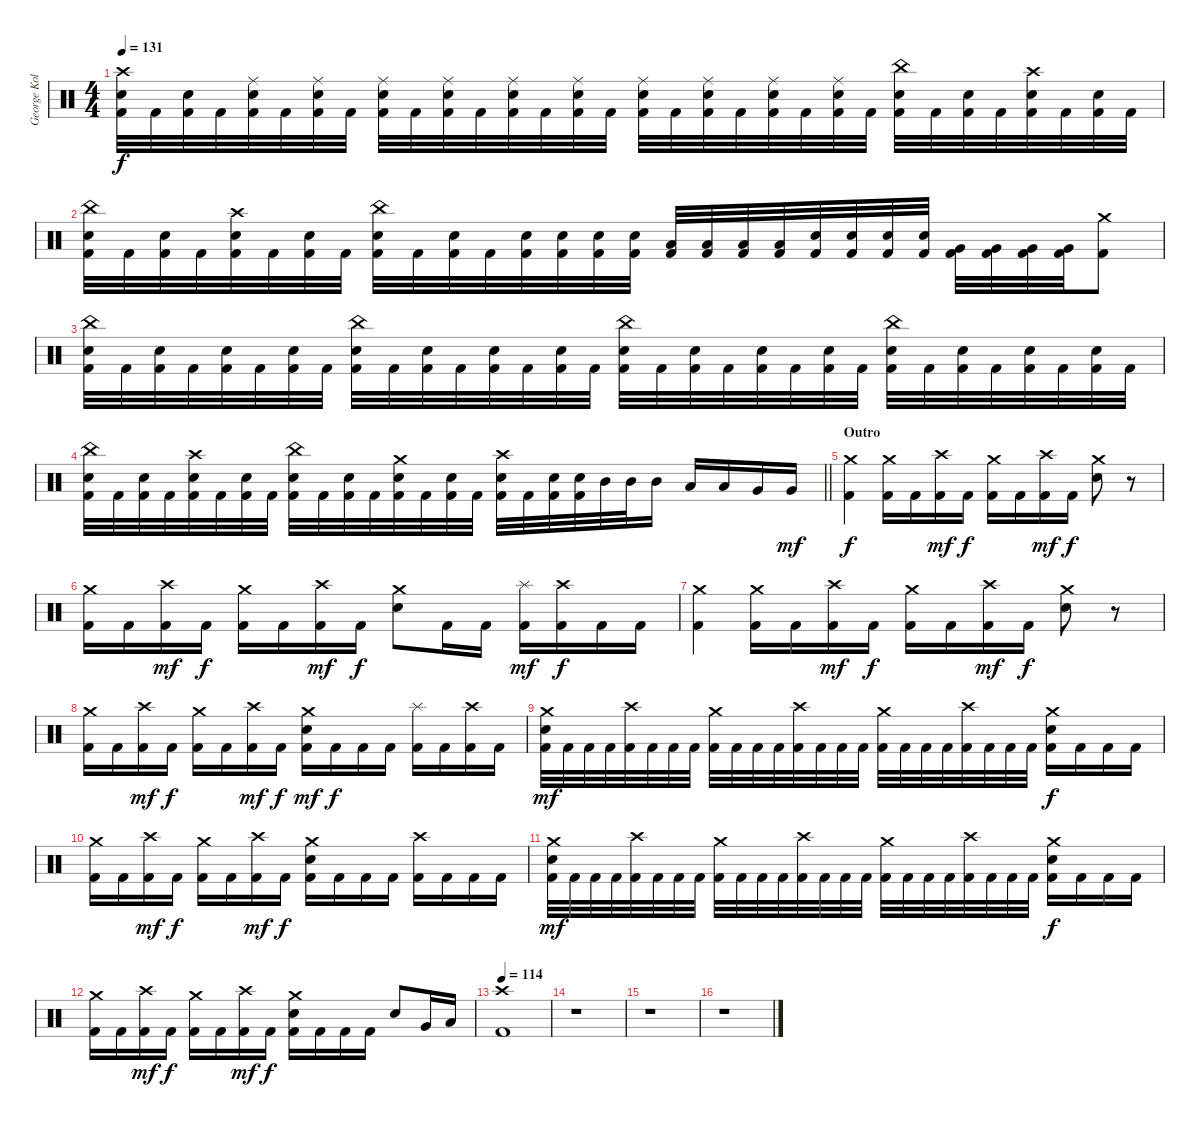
\track ("George Kollias" "George Kol") {instrument percussion}
\staff {score}
\articulation defaults
\ts (4 4)
\tempo 131
\clef neutral
\ks c
("Crash high (hit)" "Electric Snare (hit)" "Kick (hit) 2").32{dy f} "Kick (hit) 2".32 ("Electric Snare (hit)" "Kick (hit) 2").32 "Kick (hit) 2".32 ("Ride (middle)" "Electric Snare (hit)" "Kick (hit) 2").32 "Kick (hit) 2".32 ("Ride (middle)" "Electric Snare (hit)" "Kick (hit) 2").32 "Kick (hit) 2".32 ("Ride (middle)" "Electric Snare (hit)" "Kick (hit) 2").32 "Kick (hit) 2".32 ("Ride (middle)" "Electric Snare (hit)" "Kick (hit) 2").32 "Kick (hit) 2".32 ("Ride (middle)" "Electric Snare (hit)" "Kick (hit) 2").32 "Kick (hit) 2".32 ("Ride (middle)" "Electric Snare (hit)" "Kick (hit) 2").32 "Kick (hit) 2".32 ("Ride (middle)" "Electric Snare (hit)" "Kick (hit) 2").32 "Kick (hit) 2".32 ("Ride (middle)" "Electric Snare (hit)" "Kick (hit) 2").32 "Kick (hit) 2".32 ("Ride (middle)" "Electric Snare (hit)" "Kick (hit) 2").32 "Kick (hit) 2".32 ("Ride (middle)" "Electric Snare (hit)" "Kick (hit) 2").32 "Kick (hit) 2".32 ("China (hit)" "Electric Snare (hit)" "Kick (hit) 2").32 "Kick (hit) 2".32 ("Electric Snare (hit)" "Kick (hit) 2").32 "Kick (hit) 2".32 ("Crash high (hit)" "Electric Snare (hit)" "Kick (hit) 2").32 "Kick (hit) 2".32 ("Electric Snare (hit)" "Kick (hit) 2").32 "Kick (hit) 2".32 |
("China (hit)" "Electric Snare (hit)" "Kick (hit) 2").32 "Kick (hit) 2".32 ("Electric Snare (hit)" "Kick (hit) 2").32 "Kick (hit) 2".32 ("Crash high (hit)" "Electric Snare (hit)" "Kick (hit) 2").32 "Kick (hit) 2".32 ("Electric Snare (hit)" "Kick (hit) 2").32 "Kick (hit) 2".32 ("China (hit)" "Electric Snare (hit)" "Kick (hit) 2").32 "Kick (hit) 2".32 ("Electric Snare (hit)" "Kick (hit) 2").32 "Kick (hit) 2".32 ("Electric Snare (hit)" "Kick (hit) 2").32 ("Electric Snare (hit)" "Kick (hit) 2").32 ("Electric Snare (hit)" "Kick (hit) 2").32 ("Electric Snare (hit)" "Kick (hit) 2").32 ("Low Tom (hit)" "Kick (hit) 2").32 ("Low Tom (hit)" "Kick (hit) 2").32 ("Low Tom (hit)" "Kick (hit) 2").32 ("Low Tom (hit)" "Kick (hit) 2").32 ("Electric Snare (hit)" "Kick (hit) 2").32 ("Electric Snare (hit)" "Kick (hit) 2").32 ("Electric Snare (hit)" "Kick (hit) 2").32 ("Electric Snare (hit)" "Kick (hit) 2").32 ("Very Low Tom (hit)" "Kick (hit) 2").32 ("Very Low Tom (hit)" "Kick (hit) 2").32 ("Very Low Tom (hit)" "Kick (hit) 2").32 ("Very Low Tom (hit)" "Kick (hit) 2").32 ("Crash medium (hit)" "Kick (hit) 2").8 |
("China (hit)" "Electric Snare (hit)" "Kick (hit) 2").32 "Kick (hit) 2".32 ("Electric Snare (hit)" "Kick (hit) 2").32 "Kick (hit) 2".32 ("Electric Snare (hit)" "Kick (hit) 2").32 "Kick (hit) 2".32 ("Electric Snare (hit)" "Kick (hit) 2").32 "Kick (hit) 2".32 ("China (hit)" "Electric Snare (hit)" "Kick (hit) 2").32 "Kick (hit) 2".32 ("Electric Snare (hit)" "Kick (hit) 2").32 "Kick (hit) 2".32 ("Electric Snare (hit)" "Kick (hit) 2").32 "Kick (hit) 2".32 ("Electric Snare (hit)" "Kick (hit) 2").32 "Kick (hit) 2".32 ("China (hit)" "Electric Snare (hit)" "Kick (hit) 2").32 "Kick (hit) 2".32 ("Electric Snare (hit)" "Kick (hit) 2").32 "Kick (hit) 2".32 ("Electric Snare (hit)" "Kick (hit) 2").32 "Kick (hit) 2".32 ("Electric Snare (hit)" "Kick (hit) 2").32 "Kick (hit) 2".32 ("China (hit)" "Electric Snare (hit)" "Kick (hit) 2").32 "Kick (hit) 2".32 ("Electric Snare (hit)" "Kick (hit) 2").32 "Kick (hit) 2".32 ("Electric Snare (hit)" "Kick (hit) 2").32 "Kick (hit) 2".32 ("Electric Snare (hit)" "Kick (hit) 2").32 "Kick (hit) 2".32 |
\barLineRight lightlight
("China (hit)" "Electric Snare (hit)" "Kick (hit) 2").32 "Kick (hit) 2".32 ("Electric Snare (hit)" "Kick (hit) 2").32 "Kick (hit) 2".32 ("Crash high (hit)" "Electric Snare (hit)" "Kick (hit) 2").32 "Kick (hit) 2".32 ("Electric Snare (hit)" "Kick (hit) 2").32 "Kick (hit) 2".32 ("China (hit)" "Electric Snare (hit)" "Kick (hit) 2").32 "Kick (hit) 2".32 ("Electric Snare (hit)" "Kick (hit) 2").32 "Kick (hit) 2".32 ("Crash medium (hit)" "Electric Snare (hit)" "Kick (hit) 2").32 "Kick (hit) 2".32 ("Electric Snare (hit)" "Kick (hit) 2").32 "Kick (hit) 2".32 ("Crash high (hit)" "Electric Snare (hit)" "Kick (hit) 2").32 "Kick (hit) 2".32 ("Electric Snare (hit)" "Kick (hit) 2").32 ("Electric Snare (hit)" "Kick (hit) 2").32 "Mid Tom (hit)".32 "Mid Tom (hit)".32 "Mid Tom (hit)".16 "Low Tom (hit)".16 "Low Tom (hit)".16 "Very Low Tom (hit)".16 "Very Low Tom (hit)".16{dy mf} |
\section ("" "Outro ")
("Crash medium (hit)" "Kick (hit) 2").4{dy f} ("Crash medium (hit)" "Kick (hit) 2").16 "Kick (hit) 2".16 ("Crash high (hit)" "Kick (hit) 2").16{dy mf} "Kick (hit) 2".16{dy f} ("Crash medium (hit)" "Kick (hit) 2").16 "Kick (hit) 2".16 ("Crash high (hit)" "Kick (hit) 2").16{dy mf} "Kick (hit) 2".16{dy f} ("Crash medium (hit)" "Electric Snare (hit)").8 r.8 |
("Crash medium (hit)" "Kick (hit) 2").16 "Kick (hit) 2".16 ("Crash high (hit)" "Kick (hit) 2").16{dy mf} "Kick (hit) 2".16{dy f} ("Crash medium (hit)" "Kick (hit) 2").16 "Kick (hit) 2".16 ("Crash high (hit)" "Kick (hit) 2").16{dy mf} "Kick (hit) 2".16{dy f} ("Crash medium (hit)" "Electric Snare (hit)").8 "Kick (hit) 2".16 "Kick (hit) 2".16 ("Splash (hit)" "Kick (hit) 2").16{dy mf} ("Crash high (hit)" "Kick (hit) 2").16{dy f} "Kick (hit) 2".16 "Kick (hit) 2".16 |
("Crash medium (hit)" "Kick (hit) 2").4 ("Crash medium (hit)" "Kick (hit) 2").16 "Kick (hit) 2".16 ("Crash high (hit)" "Kick (hit) 2").16{dy mf} "Kick (hit) 2".16{dy f} ("Crash medium (hit)" "Kick (hit) 2").16 "Kick (hit) 2".16 ("Crash high (hit)" "Kick (hit) 2").16{dy mf} "Kick (hit) 2".16{dy f} ("Crash medium (hit)" "Electric Snare (hit)").8 r.8 |
("Crash medium (hit)" "Kick (hit) 2").16 "Kick (hit) 2".16 ("Crash high (hit)" "Kick (hit) 2").16{dy mf} "Kick (hit) 2".16{dy f} ("Crash medium (hit)" "Kick (hit) 2").16 "Kick (hit) 2".16 ("Crash high (hit)" "Kick (hit) 2").16{dy mf} "Kick (hit) 2".16{dy f} ("Crash medium (hit)" "Electric Snare (hit)" "Kick (hit) 2").16{dy mf} "Kick (hit) 2".16{dy f} "Kick (hit) 2".16 "Kick (hit) 2".16 ("Splash (hit)" "Kick (hit) 2").16 "Kick (hit) 2".16 ("Crash high (hit)" "Kick (hit) 2").16 "Kick (hit) 2".16 |
("Crash medium (hit)" "Electric Snare (hit)" "Kick (hit) 2").32{dy mf} "Kick (hit) 2".32 "Kick (hit) 2".32 "Kick (hit) 2".32 ("Crash high (hit)" "Kick (hit) 2").32 "Kick (hit) 2".32 "Kick (hit) 2".32 "Kick (hit) 2".32 ("Crash medium (hit)" "Kick (hit) 2").32 "Kick (hit) 2".32 "Kick (hit) 2".32 "Kick (hit) 2".32 ("Crash high (hit)" "Kick (hit) 2").32 "Kick (hit) 2".32 "Kick (hit) 2".32 "Kick (hit) 2".32 ("Crash medium (hit)" "Kick (hit) 2").32 "Kick (hit) 2".32 "Kick (hit) 2".32 "Kick (hit) 2".32 ("Crash high (hit)" "Kick (hit) 2").32 "Kick (hit) 2".32 "Kick (hit) 2".32 "Kick (hit) 2".32 ("Crash medium (hit)" "Electric Snare (hit)" "Kick (hit) 2").16{dy f} "Kick (hit) 2".16 "Kick (hit) 2".16 "Kick (hit) 2".16 |
("Crash medium (hit)" "Kick (hit) 2").16 "Kick (hit) 2".16 ("Crash high (hit)" "Kick (hit) 2").16{dy mf} "Kick (hit) 2".16{dy f} ("Crash medium (hit)" "Kick (hit) 2").16 "Kick (hit) 2".16 ("Crash high (hit)" "Kick (hit) 2").16{dy mf} "Kick (hit) 2".16{dy f} ("Crash medium (hit)" "Electric Snare (hit)" "Kick (hit) 2").16 "Kick (hit) 2".16 "Kick (hit) 2".16 "Kick (hit) 2".16 ("Crash high (hit)" "Kick (hit) 2").16 "Kick (hit) 2".16 "Kick (hit) 2".16 "Kick (hit) 2".16 |
("Crash medium (hit)" "Electric Snare (hit)" "Kick (hit) 2").32{dy mf} "Kick (hit) 2".32 "Kick (hit) 2".32 "Kick (hit) 2".32 ("Crash high (hit)" "Kick (hit) 2").32 "Kick (hit) 2".32 "Kick (hit) 2".32 "Kick (hit) 2".32 ("Crash medium (hit)" "Kick (hit) 2").32 "Kick (hit) 2".32 "Kick (hit) 2".32 "Kick (hit) 2".32 ("Crash high (hit)" "Kick (hit) 2").32 "Kick (hit) 2".32 "Kick (hit) 2".32 "Kick (hit) 2".32 ("Crash medium (hit)" "Kick (hit) 2").32 "Kick (hit) 2".32 "Kick (hit) 2".32 "Kick (hit) 2".32 ("Crash high (hit)" "Kick (hit) 2").32 "Kick (hit) 2".32 "Kick (hit) 2".32 "Kick (hit) 2".32 ("Crash medium (hit)" "Electric Snare (hit)" "Kick (hit) 2").16{dy f} "Kick (hit) 2".16 "Kick (hit) 2".16 "Kick (hit) 2".16 |
("Crash medium (hit)" "Kick (hit) 2").16 "Kick (hit) 2".16 ("Crash high (hit)" "Kick (hit) 2").16{dy mf} "Kick (hit) 2".16{dy f} ("Crash medium (hit)" "Kick (hit) 2").16 "Kick (hit) 2".16 ("Crash high (hit)" "Kick (hit) 2").16{dy mf} "Kick (hit) 2".16{dy f} ("Crash medium (hit)" "Electric Snare (hit)" "Kick (hit) 2").16 "Kick (hit) 2".16 "Kick (hit) 2".16 "Kick (hit) 2".16 "Electric Snare (hit)".8 "Very Low Tom (hit)".16 "Low Floor Tom (hit)".16 |
\tempo 114
("Crash high (hit)" "Kick (hit) 2").1 |
r.1 |
r.1 |
r.1
